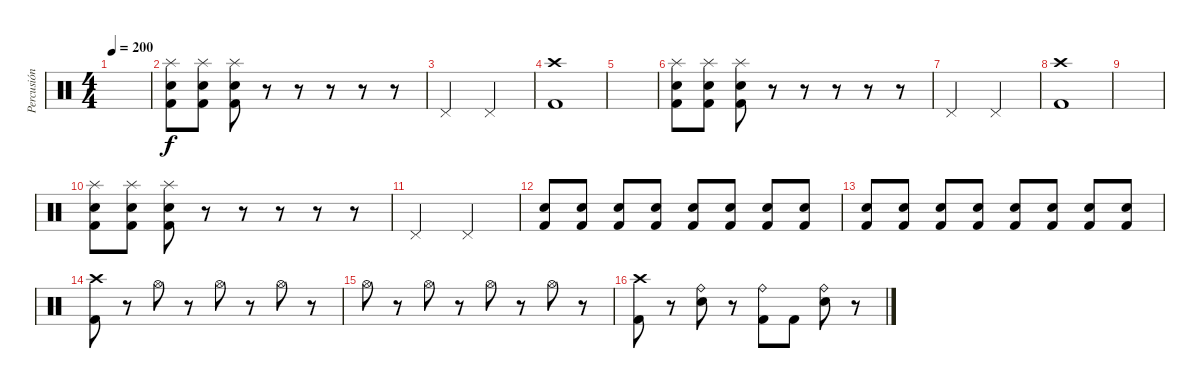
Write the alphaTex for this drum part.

\track ("Percusión" "Percusión") {instrument percussion}
\staff {score}
\articulation defaults
\ts (4 4)
\tempo 200
\clef neutral
\ks c
|
("Splash (hit)" "Kick (hit) 2" "Electric Snare (hit)").8 ("Splash (hit)" "Kick (hit) 2" "Electric Snare (hit)").8 ("Splash (hit)" "Kick (hit) 2" "Electric Snare (hit)").8 r.8 r.8 r.8 r.8 r.8 |
"Pedal Hi-Hat (hit)".2 "Pedal Hi-Hat (hit)".2 |
("Crash high (hit)" "Kick (hit) 2").1 |
|
("Splash (hit)" "Kick (hit) 2" "Electric Snare (hit)").8 ("Splash (hit)" "Kick (hit) 2" "Electric Snare (hit)").8 ("Splash (hit)" "Kick (hit) 2" "Electric Snare (hit)").8 r.8 r.8 r.8 r.8 r.8 |
"Pedal Hi-Hat (hit)".2 "Pedal Hi-Hat (hit)".2 |
("Crash high (hit)" "Kick (hit) 2").1 |
|
("Splash (hit)" "Kick (hit) 2" "Electric Snare (hit)").8 ("Splash (hit)" "Kick (hit) 2" "Electric Snare (hit)").8 ("Splash (hit)" "Kick (hit) 2" "Electric Snare (hit)").8 r.8 r.8 r.8 r.8 r.8 |
"Pedal Hi-Hat (hit)".2 "Pedal Hi-Hat (hit)".2 |
("Kick (hit) 2" "Electric Snare (hit)").8 ("Kick (hit) 2" "Electric Snare (hit)").8 ("Kick (hit) 2" "Electric Snare (hit)").8 ("Kick (hit) 2" "Electric Snare (hit)").8 ("Kick (hit) 2" "Electric Snare (hit)").8 ("Kick (hit) 2" "Electric Snare (hit)").8 ("Kick (hit) 2" "Electric Snare (hit)").8 ("Kick (hit) 2" "Electric Snare (hit)").8 |
("Kick (hit) 2" "Electric Snare (hit)").8 ("Kick (hit) 2" "Electric Snare (hit)").8 ("Kick (hit) 2" "Electric Snare (hit)").8 ("Kick (hit) 2" "Electric Snare (hit)").8 ("Kick (hit) 2" "Electric Snare (hit)").8 ("Kick (hit) 2" "Electric Snare (hit)").8 ("Kick (hit) 2" "Electric Snare (hit)").8 ("Kick (hit) 2" "Electric Snare (hit)").8 |
("Crash high (hit)" "Kick (hit) 2").8 r.8 "Hi-Hat (open)".8 r.8 "Hi-Hat (open)".8 r.8 "Hi-Hat (open)".8 r.8 |
"Hi-Hat (open)".8 r.8 "Hi-Hat (open)".8 r.8 "Hi-Hat (open)".8 r.8 "Hi-Hat (open)".8 r.8 |
("Crash high (hit)" "Kick (hit) 2").8 r.8 ("Ride (bell)" "Electric Snare (hit)").8 r.8 ("Ride (bell)" "Kick (hit) 2").8 "Kick (hit) 2".8 ("Ride (bell)" "Electric Snare (hit)").8 r.8
